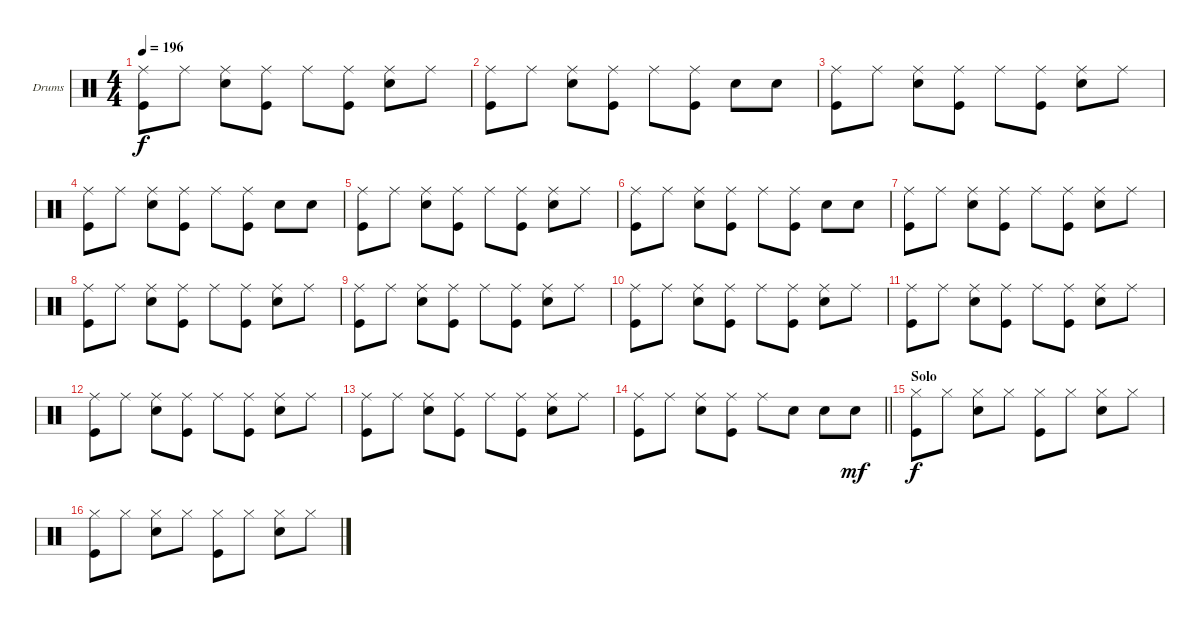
\bracketExtendMode groupsimilarinstruments
\firstSystemTrackNameOrientation horizontal
\otherSystemsTrackNameOrientation horizontal
\track ("Fabrizio" "Drums") {instrument percussion}
\staff {score}
\articulation defaults
\ts (4 4)
\tempo 196
\clef neutral
\ks c
("Kick (hit)" "Ride (middle)").8{dy f} "Ride (middle)".8 ("Snare (hit) 2" "Ride (middle)").8 ("Kick (hit)" "Ride (middle)").8 "Ride (middle)".8 ("Kick (hit)" "Ride (middle)").8 ("Snare (hit) 2" "Ride (middle)").8 "Ride (middle)".8 |
("Kick (hit)" "Ride (middle)").8 "Ride (middle)".8 ("Snare (hit) 2" "Ride (middle)").8 ("Kick (hit)" "Ride (middle)").8 "Ride (middle)".8 ("Kick (hit)" "Ride (middle)").8 "Snare (hit) 2".8 "Snare (hit) 2".8 |
("Kick (hit)" "Ride (middle)").8 "Ride (middle)".8 ("Snare (hit) 2" "Ride (middle)").8 ("Kick (hit)" "Ride (middle)").8 "Ride (middle)".8 ("Kick (hit)" "Ride (middle)").8 ("Snare (hit) 2" "Ride (middle)").8 "Ride (middle)".8 |
("Kick (hit)" "Ride (middle)").8 "Ride (middle)".8 ("Snare (hit) 2" "Ride (middle)").8 ("Kick (hit)" "Ride (middle)").8 "Ride (middle)".8 ("Kick (hit)" "Ride (middle)").8 "Snare (hit) 2".8 "Snare (hit) 2".8 |
("Kick (hit)" "Ride (middle)").8 "Ride (middle)".8 ("Snare (hit) 2" "Ride (middle)").8 ("Kick (hit)" "Ride (middle)").8 "Ride (middle)".8 ("Kick (hit)" "Ride (middle)").8 ("Snare (hit) 2" "Ride (middle)").8 "Ride (middle)".8 |
("Kick (hit)" "Ride (middle)").8 "Ride (middle)".8 ("Snare (hit) 2" "Ride (middle)").8 ("Kick (hit)" "Ride (middle)").8 "Ride (middle)".8 ("Kick (hit)" "Ride (middle)").8 "Snare (hit) 2".8 "Snare (hit) 2".8 |
("Kick (hit)" "Ride (middle)").8 "Ride (middle)".8 ("Snare (hit) 2" "Ride (middle)").8 ("Kick (hit)" "Ride (middle)").8 "Ride (middle)".8 ("Kick (hit)" "Ride (middle)").8 ("Snare (hit) 2" "Ride (middle)").8 "Ride (middle)".8 |
("Kick (hit)" "Ride (middle)").8 "Ride (middle)".8 ("Snare (hit) 2" "Ride (middle)").8 ("Kick (hit)" "Ride (middle)").8 "Ride (middle)".8 ("Kick (hit)" "Ride (middle)").8 ("Snare (hit) 2" "Ride (middle)").8 "Ride (middle)".8 |
("Kick (hit)" "Ride (middle)").8 "Ride (middle)".8 ("Snare (hit) 2" "Ride (middle)").8 ("Kick (hit)" "Ride (middle)").8 "Ride (middle)".8 ("Kick (hit)" "Ride (middle)").8 ("Snare (hit) 2" "Ride (middle)").8 "Ride (middle)".8 |
("Kick (hit)" "Ride (middle)").8 "Ride (middle)".8 ("Snare (hit) 2" "Ride (middle)").8 ("Kick (hit)" "Ride (middle)").8 "Ride (middle)".8 ("Kick (hit)" "Ride (middle)").8 ("Snare (hit) 2" "Ride (middle)").8 "Ride (middle)".8 |
("Kick (hit)" "Ride (middle)").8 "Ride (middle)".8 ("Snare (hit) 2" "Ride (middle)").8 ("Kick (hit)" "Ride (middle)").8 "Ride (middle)".8 ("Kick (hit)" "Ride (middle)").8 ("Snare (hit) 2" "Ride (middle)").8 "Ride (middle)".8 |
("Kick (hit)" "Ride (middle)").8 "Ride (middle)".8 ("Snare (hit) 2" "Ride (middle)").8 ("Kick (hit)" "Ride (middle)").8 "Ride (middle)".8 ("Kick (hit)" "Ride (middle)").8 ("Snare (hit) 2" "Ride (middle)").8 "Ride (middle)".8 |
("Kick (hit)" "Ride (middle)").8 "Ride (middle)".8 ("Snare (hit) 2" "Ride (middle)").8 ("Kick (hit)" "Ride (middle)").8 "Ride (middle)".8 ("Kick (hit)" "Ride (middle)").8 ("Snare (hit) 2" "Ride (middle)").8 "Ride (middle)".8 |
\barLineRight lightlight
("Kick (hit)" "Ride (middle)").8 "Ride (middle)".8 ("Snare (hit) 2" "Ride (middle)").8 ("Kick (hit)" "Ride (middle)").8 "Ride (middle)".8 "Snare (hit) 2".8 "Snare (hit) 2".8 "Snare (hit) 2".8{dy mf} |
\section ("" "Solo")
("Hi-Hat (closed)" "Kick (hit)").8{dy f} "Hi-Hat (closed)".8 ("Snare (hit) 2" "Hi-Hat (closed)").8 "Hi-Hat (closed)".8 ("Hi-Hat (closed)" "Kick (hit)").8 "Hi-Hat (closed)".8 ("Snare (hit) 2" "Hi-Hat (closed)").8 "Hi-Hat (closed)".8 |
("Hi-Hat (closed)" "Kick (hit)").8 "Hi-Hat (closed)".8 ("Snare (hit) 2" "Hi-Hat (closed)").8 "Hi-Hat (closed)".8 ("Hi-Hat (closed)" "Kick (hit)").8 "Hi-Hat (closed)".8 ("Snare (hit) 2" "Hi-Hat (closed)").8 "Hi-Hat (closed)".8
